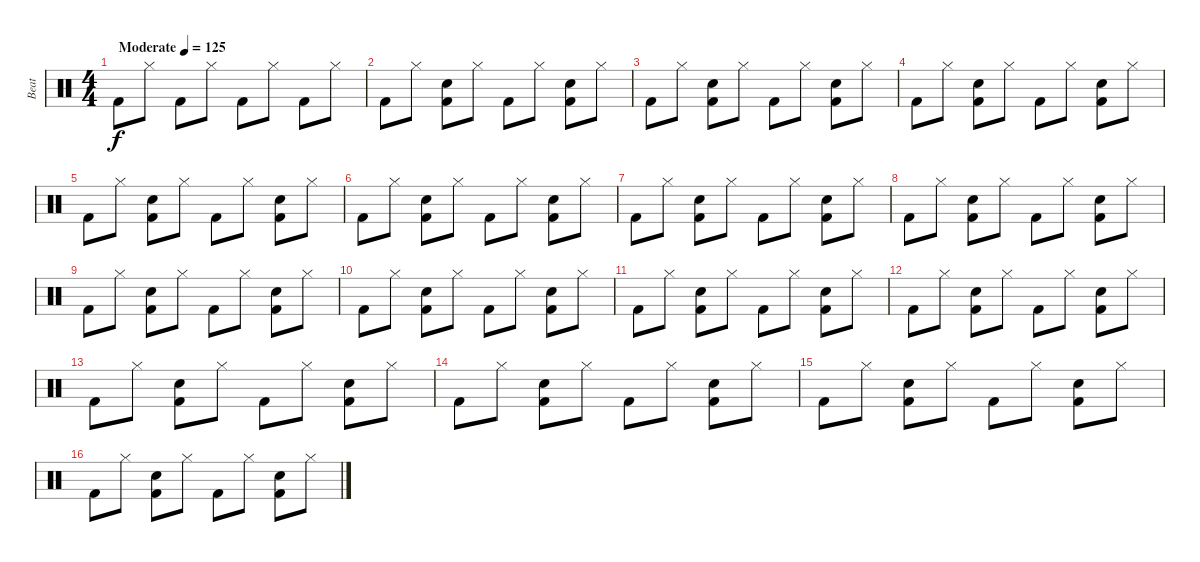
\track ("Beat" "Beat") {instrument percussion}
\staff {score}
\articulation defaults
\ts (4 4)
\tempo (125 "Moderate")
\clef neutral
\ks c "Kick (hit) 2".8{dy f} "Hi-Hat (closed)".8 "Kick (hit) 2".8 "Hi-Hat (closed)".8 "Kick (hit) 2".8 "Hi-Hat (closed)".8 "Kick (hit) 2".8 "Hi-Hat (closed)".8
|
"Kick (hit) 2".8 "Hi-Hat (closed)".8 ("Electric Snare (hit)" "Kick (hit) 2").8 "Hi-Hat (closed)".8 "Kick (hit) 2".8 "Hi-Hat (closed)".8 ("Electric Snare (hit)" "Kick (hit) 2").8 "Hi-Hat (closed)".8 |
"Kick (hit) 2".8 "Hi-Hat (closed)".8 ("Electric Snare (hit)" "Kick (hit) 2").8 "Hi-Hat (closed)".8 "Kick (hit) 2".8 "Hi-Hat (closed)".8 ("Electric Snare (hit)" "Kick (hit) 2").8 "Hi-Hat (closed)".8 |
"Kick (hit) 2".8 "Hi-Hat (closed)".8 ("Electric Snare (hit)" "Kick (hit) 2").8 "Hi-Hat (closed)".8 "Kick (hit) 2".8 "Hi-Hat (closed)".8 ("Electric Snare (hit)" "Kick (hit) 2").8 "Hi-Hat (closed)".8 |
"Kick (hit) 2".8 "Hi-Hat (closed)".8 ("Electric Snare (hit)" "Kick (hit) 2").8 "Hi-Hat (closed)".8 "Kick (hit) 2".8 "Hi-Hat (closed)".8 ("Electric Snare (hit)" "Kick (hit) 2").8 "Hi-Hat (closed)".8 |
"Kick (hit) 2".8 "Hi-Hat (closed)".8 ("Electric Snare (hit)" "Kick (hit) 2").8 "Hi-Hat (closed)".8 "Kick (hit) 2".8 "Hi-Hat (closed)".8 ("Electric Snare (hit)" "Kick (hit) 2").8 "Hi-Hat (closed)".8 |
"Kick (hit) 2".8 "Hi-Hat (closed)".8 ("Electric Snare (hit)" "Kick (hit) 2").8 "Hi-Hat (closed)".8 "Kick (hit) 2".8 "Hi-Hat (closed)".8 ("Electric Snare (hit)" "Kick (hit) 2").8 "Hi-Hat (closed)".8 |
"Kick (hit) 2".8 "Hi-Hat (closed)".8 ("Electric Snare (hit)" "Kick (hit) 2").8 "Hi-Hat (closed)".8 "Kick (hit) 2".8 "Hi-Hat (closed)".8 ("Electric Snare (hit)" "Kick (hit) 2").8 "Hi-Hat (closed)".8 |
"Kick (hit) 2".8 "Hi-Hat (closed)".8 ("Electric Snare (hit)" "Kick (hit) 2").8 "Hi-Hat (closed)".8 "Kick (hit) 2".8 "Hi-Hat (closed)".8 ("Electric Snare (hit)" "Kick (hit) 2").8 "Hi-Hat (closed)".8 |
"Kick (hit) 2".8 "Hi-Hat (closed)".8 ("Electric Snare (hit)" "Kick (hit) 2").8 "Hi-Hat (closed)".8 "Kick (hit) 2".8 "Hi-Hat (closed)".8 ("Electric Snare (hit)" "Kick (hit) 2").8 "Hi-Hat (closed)".8 |
"Kick (hit) 2".8 "Hi-Hat (closed)".8 ("Electric Snare (hit)" "Kick (hit) 2").8 "Hi-Hat (closed)".8 "Kick (hit) 2".8 "Hi-Hat (closed)".8 ("Electric Snare (hit)" "Kick (hit) 2").8 "Hi-Hat (closed)".8 |
"Kick (hit) 2".8 "Hi-Hat (closed)".8 ("Electric Snare (hit)" "Kick (hit) 2").8 "Hi-Hat (closed)".8 "Kick (hit) 2".8 "Hi-Hat (closed)".8 ("Electric Snare (hit)" "Kick (hit) 2").8 "Hi-Hat (closed)".8 |
"Kick (hit) 2".8 "Hi-Hat (closed)".8 ("Electric Snare (hit)" "Kick (hit) 2").8 "Hi-Hat (closed)".8 "Kick (hit) 2".8 "Hi-Hat (closed)".8 ("Electric Snare (hit)" "Kick (hit) 2").8 "Hi-Hat (closed)".8 |
"Kick (hit) 2".8 "Hi-Hat (closed)".8 ("Electric Snare (hit)" "Kick (hit) 2").8 "Hi-Hat (closed)".8 "Kick (hit) 2".8 "Hi-Hat (closed)".8 ("Electric Snare (hit)" "Kick (hit) 2").8 "Hi-Hat (closed)".8 |
"Kick (hit) 2".8 "Hi-Hat (closed)".8 ("Electric Snare (hit)" "Kick (hit) 2").8 "Hi-Hat (closed)".8 "Kick (hit) 2".8 "Hi-Hat (closed)".8 ("Electric Snare (hit)" "Kick (hit) 2").8 "Hi-Hat (closed)".8 |
"Kick (hit) 2".8 "Hi-Hat (closed)".8 ("Electric Snare (hit)" "Kick (hit) 2").8 "Hi-Hat (closed)".8 "Kick (hit) 2".8 "Hi-Hat (closed)".8 ("Electric Snare (hit)" "Kick (hit) 2").8 "Hi-Hat (closed)".8
